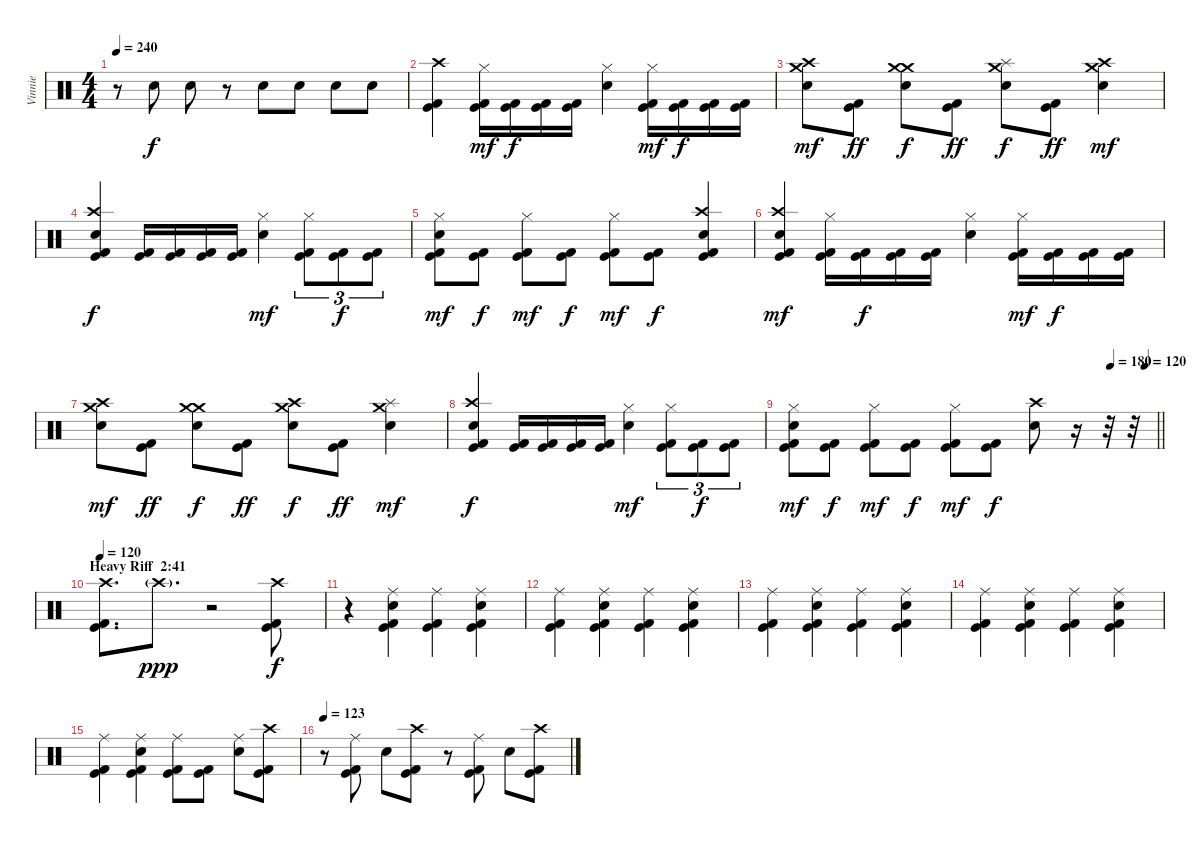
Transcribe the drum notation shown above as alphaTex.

\track ("Vinnie" "Vinnie") {instrument percussion}
\staff {score}
\articulation defaults
\ts (4 4)
\tempo 240
\clef neutral
\ks c
r.8{dy mf} "Electric Snare (hit)".8{dy f} "Electric Snare (hit)".8 r.8 "Electric Snare (hit)".8 "Electric Snare (hit)".8 "Electric Snare (hit)".8 "Electric Snare (hit)".8 |
("Crash high (hit)" "Kick (hit)" "Kick (hit) 2").4 ("Hi-Hat (closed)" "Kick (hit)" "Kick (hit) 2").16{dy mf} ("Kick (hit)" "Kick (hit) 2").16{dy f} ("Kick (hit)" "Kick (hit) 2").16 ("Kick (hit)" "Kick (hit) 2").16 ("Hi-Hat (closed)" "Electric Snare (hit)").4 ("Hi-Hat (closed)" "Kick (hit)" "Kick (hit) 2").16{dy mf} ("Kick (hit)" "Kick (hit) 2").16{dy f} ("Kick (hit)" "Kick (hit) 2").16 ("Kick (hit)" "Kick (hit) 2").16 |
("Crash high (hit)" "Crash medium (hit)" "Electric Snare (hit)").8{dy mf} ("Kick (hit)" "Kick (hit) 2").8{dy ff} ("Crash medium (hit)" "Crash medium (hit)" "Electric Snare (hit)").8{dy f} ("Kick (hit)" "Kick (hit) 2").8{dy ff} ("Crash medium (hit)" "Splash (hit)" "Electric Snare (hit)").8{dy f} ("Kick (hit)" "Kick (hit) 2").8{dy ff} ("Crash high (hit)" "Crash medium (hit)" "Electric Snare (hit)").4{dy mf} |
("Crash high (hit)" "Electric Snare (hit)" "Kick (hit)" "Kick (hit) 2").4{bd 60 dy f} ("Kick (hit)" "Kick (hit) 2").16 ("Kick (hit)" "Kick (hit) 2").16 ("Kick (hit)" "Kick (hit) 2").16 ("Kick (hit)" "Kick (hit) 2").16 ("Hi-Hat (closed)" "Electric Snare (hit)").4{dy mf} ("Hi-Hat (closed)" "Kick (hit)" "Kick (hit) 2").8{tu (3 2)} ("Kick (hit)" "Kick (hit) 2").8{tu (3 2) dy f} ("Kick (hit)" "Kick (hit) 2").8{tu (3 2)} |
("Hi-Hat (closed)" "Electric Snare (hit)" "Kick (hit)" "Kick (hit) 2").8{dy mf} ("Kick (hit)" "Kick (hit) 2").8{dy f} ("Hi-Hat (closed)" "Kick (hit)" "Kick (hit) 2").8{dy mf} ("Kick (hit)" "Kick (hit) 2").8{dy f} ("Hi-Hat (closed)" "Kick (hit)" "Kick (hit) 2").8{dy mf} ("Kick (hit)" "Kick (hit) 2").8{dy f} ("Crash high (hit)" "Electric Snare (hit)" "Kick (hit)" "Kick (hit) 2").4{bd 30} |
("Crash high (hit)" "Electric Snare (hit)" "Kick (hit)" "Kick (hit) 2").4{bd 30 dy mf} ("Hi-Hat (closed)" "Kick (hit)" "Kick (hit) 2").16 ("Kick (hit)" "Kick (hit) 2").16{dy f} ("Kick (hit)" "Kick (hit) 2").16 ("Kick (hit)" "Kick (hit) 2").16 ("Hi-Hat (closed)" "Electric Snare (hit)").4 ("Hi-Hat (closed)" "Kick (hit)" "Kick (hit) 2").16{dy mf} ("Kick (hit)" "Kick (hit) 2").16{dy f} ("Kick (hit)" "Kick (hit) 2").16 ("Kick (hit)" "Kick (hit) 2").16 |
("Crash high (hit)" "Crash medium (hit)" "Electric Snare (hit)").8{dy mf} ("Kick (hit)" "Kick (hit) 2").8{dy ff} ("Crash medium (hit)" "Crash medium (hit)" "Electric Snare (hit)").8{dy f} ("Kick (hit)" "Kick (hit) 2").8{dy ff} ("Crash high (hit)" "Crash medium (hit)" "Electric Snare (hit)").8{dy f} ("Kick (hit)" "Kick (hit) 2").8{dy ff} ("Splash (hit)" "Crash medium (hit)" "Electric Snare (hit)").4{dy mf} |
("Crash high (hit)" "Electric Snare (hit)" "Kick (hit)" "Kick (hit) 2").4{bd 60 dy f} ("Kick (hit)" "Kick (hit) 2").16 ("Kick (hit)" "Kick (hit) 2").16 ("Kick (hit)" "Kick (hit) 2").16 ("Kick (hit)" "Kick (hit) 2").16 ("Hi-Hat (closed)" "Electric Snare (hit)").4{dy mf} ("Hi-Hat (closed)" "Kick (hit)" "Kick (hit) 2").8{tu (3 2)} ("Kick (hit)" "Kick (hit) 2").8{tu (3 2) dy f} ("Kick (hit)" "Kick (hit) 2").8{tu (3 2)} |
\tempo (180 0.875)
\tempo (120 0.96875)
\barLineRight lightlight
("Hi-Hat (closed)" "Electric Snare (hit)" "Kick (hit)" "Kick (hit) 2").8{dy mf} ("Kick (hit)" "Kick (hit) 2").8{dy f} ("Hi-Hat (closed)" "Kick (hit)" "Kick (hit) 2").8{dy mf} ("Kick (hit)" "Kick (hit) 2").8{dy f} ("Hi-Hat (closed)" "Kick (hit)" "Kick (hit) 2").8{dy mf} ("Kick (hit)" "Kick (hit) 2").8{dy f} ("Crash high (hit)" "Electric Snare (hit)").8 r.16 r.32 r.32 |
\section ("" "Heavy Riff  2:41")
\tempo 120
("Crash high (hit)" "Kick (hit)" "Kick (hit) 2").8{d} "Crash high (hit)"{g}.8{d dy ppp} r.2 ("Crash high (hit)" "Kick (hit)" "Kick (hit) 2").8{dy f} |
r.4 ("Ride (middle)" "Electric Snare (hit)" "Kick (hit)" "Kick (hit) 2").4 ("Ride (middle)" "Kick (hit)" "Kick (hit) 2").4 ("Ride (middle)" "Electric Snare (hit)" "Kick (hit)" "Kick (hit) 2").4 |
("Ride (middle)" "Kick (hit)" "Kick (hit) 2").4 ("Ride (middle)" "Electric Snare (hit)" "Kick (hit)" "Kick (hit) 2").4 ("Ride (middle)" "Kick (hit)" "Kick (hit) 2").4 ("Ride (middle)" "Electric Snare (hit)" "Kick (hit)" "Kick (hit) 2").4 |
("Ride (middle)" "Kick (hit)" "Kick (hit) 2").4 ("Ride (middle)" "Electric Snare (hit)" "Kick (hit)" "Kick (hit) 2").4 ("Ride (middle)" "Kick (hit)" "Kick (hit) 2").4 ("Ride (middle)" "Electric Snare (hit)" "Kick (hit)" "Kick (hit) 2").4 |
("Ride (middle)" "Kick (hit)" "Kick (hit) 2").4 ("Ride (middle)" "Electric Snare (hit)" "Kick (hit)" "Kick (hit) 2").4 ("Ride (middle)" "Kick (hit)" "Kick (hit) 2").4 ("Ride (middle)" "Electric Snare (hit)" "Kick (hit)" "Kick (hit) 2").4 |
("Ride (middle)" "Kick (hit)" "Kick (hit) 2").4 ("Ride (middle)" "Electric Snare (hit)" "Kick (hit)" "Kick (hit) 2").4 ("Ride (middle)" "Kick (hit)" "Kick (hit) 2").8 ("Kick (hit)" "Kick (hit) 2").8 ("Ride (middle)" "Electric Snare (hit)").8 ("Crash high (hit)" "Kick (hit)" "Kick (hit) 2").8 |
\tempo 123
r.8 ("Ride (middle)" "Kick (hit)" "Kick (hit) 2").8 "Electric Snare (hit)".8 ("Crash high (hit)" "Kick (hit)" "Kick (hit) 2").8 r.8 ("Ride (middle)" "Kick (hit)" "Kick (hit) 2").8 "Electric Snare (hit)".8 ("Crash high (hit)" "Kick (hit)" "Kick (hit) 2").8
